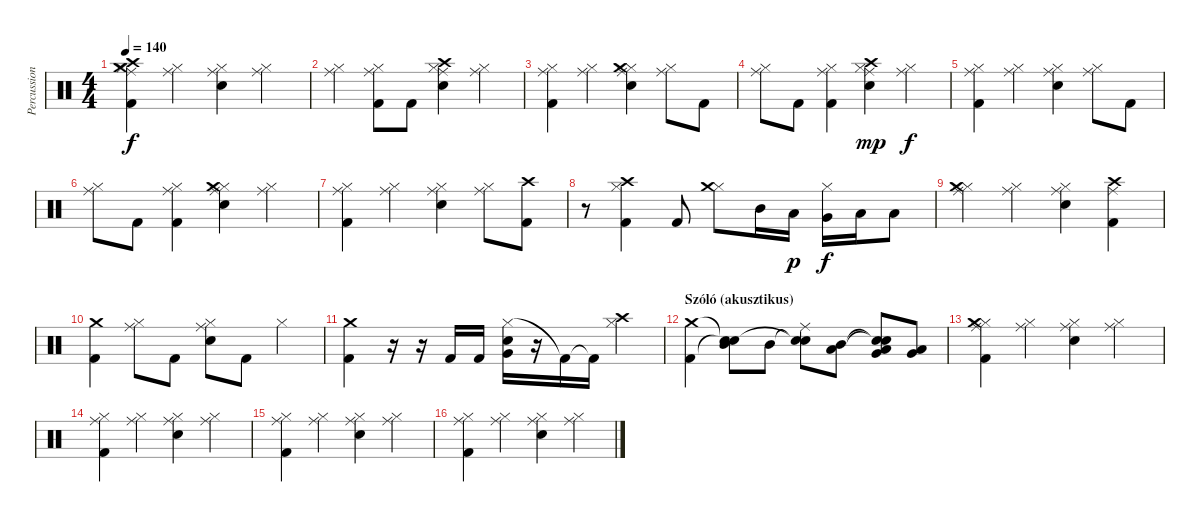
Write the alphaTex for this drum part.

\track ("Percussion" "Percussion") {instrument percussion}
\staff {score}
\articulation defaults
\ts (4 4)
\tempo 140
\clef neutral
\ks c
("Hi-Hat (closed)" "Crash high (hit)" "Kick (hit) 2" "Crash medium (hit)" "Ride (middle)").4{dy f} ("Hi-Hat (closed)" "Ride (middle)").4 ("Hi-Hat (closed)" "Electric Snare (hit)" "Ride (middle)").4 ("Hi-Hat (closed)" "Ride (middle)").4 |
("Hi-Hat (closed)" "Ride (middle)").4 ("Hi-Hat (closed)" "Kick (hit) 2" "Ride (middle)").8 "Kick (hit) 2".8 ("Hi-Hat (closed)" "Crash high (hit)" "Electric Snare (hit)" "Ride (middle)").4 ("Hi-Hat (closed)" "Ride (middle)").4 |
("Hi-Hat (closed)" "Kick (hit) 2" "Ride (middle)").4 ("Hi-Hat (closed)" "Ride (middle)").4 ("Hi-Hat (closed)" "Crash medium (hit)" "Electric Snare (hit)" "Ride (middle)").4 ("Hi-Hat (closed)" "Ride (middle)").8 "Kick (hit) 2".8 |
("Hi-Hat (closed)" "Ride (middle)").8 "Kick (hit) 2".8 ("Hi-Hat (closed)" "Kick (hit) 2" "Ride (middle)").4 ("Hi-Hat (closed)" "Crash high (hit)" "Electric Snare (hit)" "Ride (middle)").4{dy mp} ("Hi-Hat (closed)" "Ride (middle)").4{dy f} |
("Hi-Hat (closed)" "Kick (hit) 2" "Ride (middle)").4 ("Hi-Hat (closed)" "Ride (middle)").4 ("Hi-Hat (closed)" "Electric Snare (hit)" "Ride (middle)").4 ("Hi-Hat (closed)" "Ride (middle)").8 "Kick (hit) 2".8 |
("Hi-Hat (closed)" "Ride (middle)").8 "Kick (hit) 2".8 ("Hi-Hat (closed)" "Kick (hit) 2" "Ride (middle)").4 ("Hi-Hat (closed)" "Crash medium (hit)" "Electric Snare (hit)" "Ride (middle)").4 ("Hi-Hat (closed)" "Ride (middle)").4 |
("Hi-Hat (closed)" "Kick (hit) 2" "Ride (middle)").4 ("Hi-Hat (closed)" "Ride (middle)").4 ("Hi-Hat (closed)" "Electric Snare (hit)" "Ride (middle)").4 ("Hi-Hat (closed)" "Ride (middle)").8 ("Crash high (hit)" "Kick (hit) 2").8 |
r.8 ("Hi-Hat (closed)" "Crash high (hit)" "Kick (hit) 2").4 "Kick (hit) 2".8 ("Hi-Hat (closed)" "Crash medium (hit)").8 "Mid Tom (hit)".16 "Low Tom (hit)".16{dy p} ("Hi-Hat (closed)" "Very Low Tom (hit)").16{dy f} "Low Floor Tom (hit)".16 "Low Floor Tom (hit)".8 |
("Hi-Hat (closed)" "Crash medium (hit)" "Ride (middle)").4 ("Hi-Hat (closed)" "Ride (middle)").4 ("Hi-Hat (closed)" "Electric Snare (hit)" "Ride (middle)").4 ("Crash high (hit)" "Kick (hit) 2" "Ride (middle)").4 |
("Crash medium (hit)" "Kick (hit) 2").4 ("Hi-Hat (closed)" "Ride (middle)").8 "Kick (hit) 2".8 ("Hi-Hat (closed)" "Electric Snare (hit)" "Ride (middle)").8 "Kick (hit) 2".8 "Hi-Hat (closed)".4 |
("Crash medium (hit)" "Kick (hit) 2").4 r.16 r.16 "Kick (hit) 2".16 "Kick (hit) 2".16 ("Hi-Hat (closed)" "Very Low Tom (hit)" "Electric Snare (hit)").16 r.16 "Kick (hit) 2"{t}.16 "Kick (hit) 2"{t}.16 ("Hi-Hat (closed)" "Crash high (hit)").4 |
\section ("" "Szóló (akusztikus)")
("Crash medium (hit)" "Kick (hit) 2").4 ("Snare (hit)"{t} "Snare (hit)"{t} "Mid Tom (hit)").8 "Mid Tom (hit)".8 ("Snare (hit)"{t} "Snare (hit)"{t} "Ride (middle)").8 ("Low Tom (hit)" "Mid Tom (hit)").8 ("Snare (hit)"{t} "Snare (hit)"{t} "Very Low Tom (hit)" "Low Tom (hit)").8 ("Low Floor Tom (hit)" "Very Low Tom (hit)").8 |
("Hi-Hat (closed)" "Crash medium (hit)" "Kick (hit) 2" "Ride (middle)").4 ("Hi-Hat (closed)" "Ride (middle)").4 ("Hi-Hat (closed)" "Electric Snare (hit)" "Ride (middle)").4 ("Hi-Hat (closed)" "Ride (middle)").4 |
("Hi-Hat (closed)" "Kick (hit) 2" "Ride (middle)").4 ("Hi-Hat (closed)" "Ride (middle)").4 ("Hi-Hat (closed)" "Electric Snare (hit)" "Ride (middle)").4 ("Hi-Hat (closed)" "Ride (middle)").4 |
("Hi-Hat (closed)" "Kick (hit) 2" "Ride (middle)").4 ("Hi-Hat (closed)" "Ride (middle)").4 ("Hi-Hat (closed)" "Electric Snare (hit)" "Ride (middle)").4 ("Hi-Hat (closed)" "Ride (middle)").4 |
("Hi-Hat (closed)" "Kick (hit) 2" "Ride (middle)").4 ("Hi-Hat (closed)" "Ride (middle)").4 ("Hi-Hat (closed)" "Electric Snare (hit)" "Ride (middle)").4 ("Hi-Hat (closed)" "Ride (middle)").4
